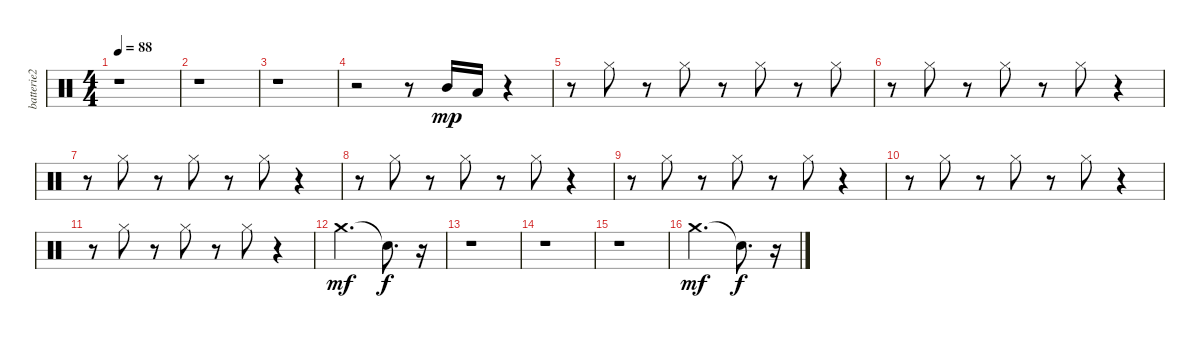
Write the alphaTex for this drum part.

\track ("batterie2" "batterie2") {instrument percussion}
\staff {score}
\articulation defaults
\ts (4 4)
\tempo 88
\clef neutral
\ks c
r.1{dy mp} |
r.1 |
r.1 |
r.2 r.8 "Mid Tom (hit)".16 "Low Tom (hit)".16 r.4 |
r.8 "Hi-Hat (closed)".8 r.8 "Hi-Hat (closed)".8 r.8 "Hi-Hat (closed)".8 r.8 "Hi-Hat (closed)".8 |
r.8 "Hi-Hat (closed)".8 r.8 "Hi-Hat (closed)".8 r.8 "Hi-Hat (closed)".8 r.4 |
r.8 "Hi-Hat (closed)".8 r.8 "Hi-Hat (closed)".8 r.8 "Hi-Hat (closed)".8 r.4 |
r.8 "Hi-Hat (closed)".8 r.8 "Hi-Hat (closed)".8 r.8 "Hi-Hat (closed)".8 r.4 |
r.8 "Hi-Hat (closed)".8 r.8 "Hi-Hat (closed)".8 r.8 "Hi-Hat (closed)".8 r.4 |
r.8 "Hi-Hat (closed)".8 r.8 "Hi-Hat (closed)".8 r.8 "Hi-Hat (closed)".8 r.4 |
r.8 "Hi-Hat (closed)".8 r.8 "Hi-Hat (closed)".8 r.8 "Hi-Hat (closed)".8 r.4 |
"Crash medium (hit)".2{d dy mf} "Snare (hit)"{t}.8{d dy f} r.16 |
r.1 |
r.1 |
r.1 |
"Crash medium (hit)".2{d dy mf} "Snare (hit)"{t}.8{d dy f} r.16
